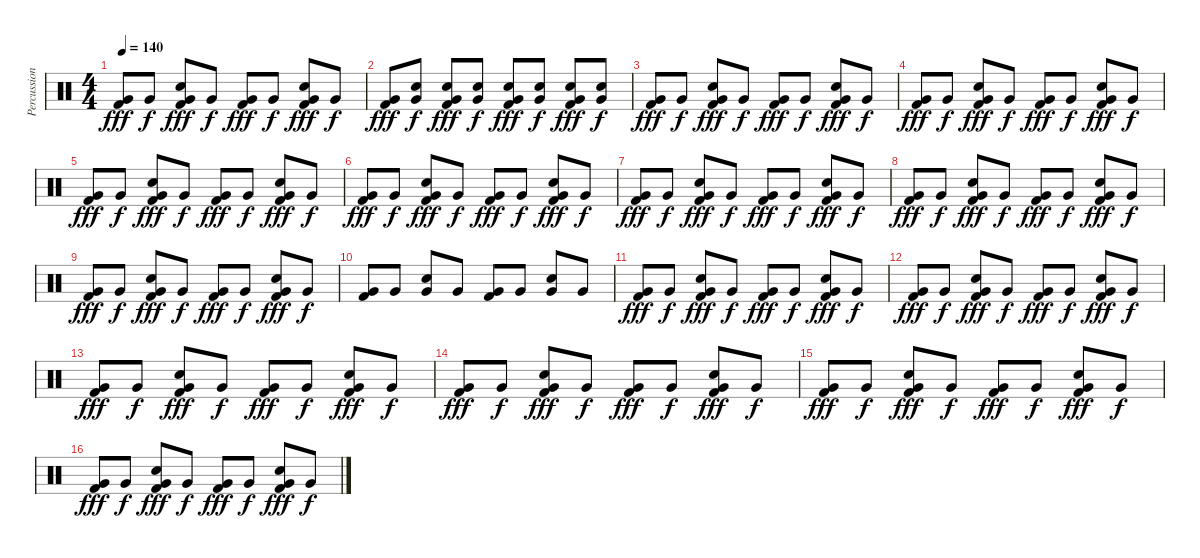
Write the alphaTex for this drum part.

\track ("Percussion" "Percussion") {instrument percussion}
\staff {score}
\articulation defaults
\ts (4 4)
\tempo 140
\clef neutral
\ks c
("Very Low Tom (hit)" "Kick (hit) 2").8{dy fff} "Very Low Tom (hit)".8{dy f} ("Very Low Tom (hit)" "Snare (hit) 2" "Kick (hit) 2").8{dy fff} "Very Low Tom (hit)".8{dy f} ("Very Low Tom (hit)" "Kick (hit) 2").8{dy fff} "Very Low Tom (hit)".8{dy f} ("Very Low Tom (hit)" "Snare (hit) 2" "Kick (hit) 2").8{dy fff} "Very Low Tom (hit)".8{dy f} |
("Very Low Tom (hit)" "Kick (hit) 2").8{dy fff} ("Very Low Tom (hit)" "Snare (hit) 2").8{dy f} ("Very Low Tom (hit)" "Snare (hit) 2" "Kick (hit) 2").8{dy fff} ("Very Low Tom (hit)" "Snare (hit) 2").8{dy f} ("Very Low Tom (hit)" "Snare (hit) 2" "Kick (hit) 2").8{dy fff} ("Very Low Tom (hit)" "Snare (hit) 2").8{dy f} ("Very Low Tom (hit)" "Snare (hit) 2" "Kick (hit) 2").8{dy fff} ("Very Low Tom (hit)" "Snare (hit) 2").8{dy f} |
("Very Low Tom (hit)" "Kick (hit) 2").8{dy fff} "Very Low Tom (hit)".8{dy f} ("Very Low Tom (hit)" "Snare (hit) 2" "Kick (hit) 2").8{dy fff} "Very Low Tom (hit)".8{dy f} ("Very Low Tom (hit)" "Kick (hit) 2").8{dy fff} "Very Low Tom (hit)".8{dy f} ("Very Low Tom (hit)" "Snare (hit) 2" "Kick (hit) 2").8{dy fff} "Very Low Tom (hit)".8{dy f} |
("Very Low Tom (hit)" "Kick (hit) 2").8{dy fff} "Very Low Tom (hit)".8{dy f} ("Very Low Tom (hit)" "Snare (hit) 2" "Kick (hit) 2").8{dy fff} "Very Low Tom (hit)".8{dy f} ("Very Low Tom (hit)" "Kick (hit) 2").8{dy fff} "Very Low Tom (hit)".8{dy f} ("Very Low Tom (hit)" "Snare (hit) 2" "Kick (hit) 2").8{dy fff} "Very Low Tom (hit)".8{dy f} |
("Very Low Tom (hit)" "Kick (hit) 2").8{dy fff} "Very Low Tom (hit)".8{dy f} ("Very Low Tom (hit)" "Snare (hit) 2" "Kick (hit) 2").8{dy fff} "Very Low Tom (hit)".8{dy f} ("Very Low Tom (hit)" "Kick (hit) 2").8{dy fff} "Very Low Tom (hit)".8{dy f} ("Very Low Tom (hit)" "Snare (hit) 2" "Kick (hit) 2").8{dy fff} "Very Low Tom (hit)".8{dy f} |
("Very Low Tom (hit)" "Kick (hit) 2").8{dy fff} "Very Low Tom (hit)".8{dy f} ("Very Low Tom (hit)" "Snare (hit) 2" "Kick (hit) 2").8{dy fff} "Very Low Tom (hit)".8{dy f} ("Very Low Tom (hit)" "Kick (hit) 2").8{dy fff} "Very Low Tom (hit)".8{dy f} ("Very Low Tom (hit)" "Snare (hit) 2" "Kick (hit) 2").8{dy fff} "Very Low Tom (hit)".8{dy f} |
("Very Low Tom (hit)" "Kick (hit) 2").8{dy fff} "Very Low Tom (hit)".8{dy f} ("Very Low Tom (hit)" "Snare (hit) 2" "Kick (hit) 2").8{dy fff} "Very Low Tom (hit)".8{dy f} ("Very Low Tom (hit)" "Kick (hit) 2").8{dy fff} "Very Low Tom (hit)".8{dy f} ("Very Low Tom (hit)" "Snare (hit) 2" "Kick (hit) 2").8{dy fff} "Very Low Tom (hit)".8{dy f} |
("Very Low Tom (hit)" "Kick (hit) 2").8{dy fff} "Very Low Tom (hit)".8{dy f} ("Very Low Tom (hit)" "Snare (hit) 2" "Kick (hit) 2").8{dy fff} "Very Low Tom (hit)".8{dy f} ("Very Low Tom (hit)" "Kick (hit) 2").8{dy fff} "Very Low Tom (hit)".8{dy f} ("Very Low Tom (hit)" "Snare (hit) 2" "Kick (hit) 2").8{dy fff} "Very Low Tom (hit)".8{dy f} |
("Very Low Tom (hit)" "Kick (hit) 2").8{dy fff} "Very Low Tom (hit)".8{dy f} ("Very Low Tom (hit)" "Snare (hit) 2" "Kick (hit) 2").8{dy fff} "Very Low Tom (hit)".8{dy f} ("Very Low Tom (hit)" "Kick (hit) 2").8{dy fff} "Very Low Tom (hit)".8{dy f} ("Very Low Tom (hit)" "Snare (hit) 2" "Kick (hit) 2").8{dy fff} "Very Low Tom (hit)".8{dy f} |
("Very Low Tom (hit)" "Kick (hit) 2").8 "Very Low Tom (hit)".8 ("Very Low Tom (hit)" "Snare (hit) 2").8 "Very Low Tom (hit)".8 ("Very Low Tom (hit)" "Kick (hit) 2").8 "Very Low Tom (hit)".8 ("Very Low Tom (hit)" "Snare (hit) 2").8 "Very Low Tom (hit)".8 |
("Very Low Tom (hit)" "Kick (hit) 2").8{dy fff} "Very Low Tom (hit)".8{dy f} ("Very Low Tom (hit)" "Snare (hit) 2" "Kick (hit) 2").8{dy fff} "Very Low Tom (hit)".8{dy f} ("Very Low Tom (hit)" "Kick (hit) 2").8{dy fff} "Very Low Tom (hit)".8{dy f} ("Very Low Tom (hit)" "Snare (hit) 2" "Kick (hit) 2").8{dy fff} "Very Low Tom (hit)".8{dy f} |
("Very Low Tom (hit)" "Kick (hit) 2").8{dy fff} "Very Low Tom (hit)".8{dy f} ("Very Low Tom (hit)" "Snare (hit) 2" "Kick (hit) 2").8{dy fff} "Very Low Tom (hit)".8{dy f} ("Very Low Tom (hit)" "Kick (hit) 2").8{dy fff} "Very Low Tom (hit)".8{dy f} ("Very Low Tom (hit)" "Snare (hit) 2" "Kick (hit) 2").8{dy fff} "Very Low Tom (hit)".8{dy f} |
("Very Low Tom (hit)" "Kick (hit) 2").8{dy fff} "Very Low Tom (hit)".8{dy f} ("Very Low Tom (hit)" "Snare (hit) 2" "Kick (hit) 2").8{dy fff} "Very Low Tom (hit)".8{dy f} ("Very Low Tom (hit)" "Kick (hit) 2").8{dy fff} "Very Low Tom (hit)".8{dy f} ("Very Low Tom (hit)" "Snare (hit) 2" "Kick (hit) 2").8{dy fff} "Very Low Tom (hit)".8{dy f} |
("Very Low Tom (hit)" "Kick (hit) 2").8{dy fff} "Very Low Tom (hit)".8{dy f} ("Very Low Tom (hit)" "Snare (hit) 2" "Kick (hit) 2").8{dy fff} "Very Low Tom (hit)".8{dy f} ("Very Low Tom (hit)" "Kick (hit) 2").8{dy fff} "Very Low Tom (hit)".8{dy f} ("Very Low Tom (hit)" "Snare (hit) 2" "Kick (hit) 2").8{dy fff} "Very Low Tom (hit)".8{dy f} |
("Very Low Tom (hit)" "Kick (hit) 2").8{dy fff} "Very Low Tom (hit)".8{dy f} ("Very Low Tom (hit)" "Snare (hit) 2" "Kick (hit) 2").8{dy fff} "Very Low Tom (hit)".8{dy f} ("Very Low Tom (hit)" "Kick (hit) 2").8{dy fff} "Very Low Tom (hit)".8{dy f} ("Very Low Tom (hit)" "Snare (hit) 2" "Kick (hit) 2").8{dy fff} "Very Low Tom (hit)".8{dy f} |
("Very Low Tom (hit)" "Kick (hit) 2").8{dy fff} "Very Low Tom (hit)".8{dy f} ("Very Low Tom (hit)" "Snare (hit) 2" "Kick (hit) 2").8{dy fff} "Very Low Tom (hit)".8{dy f} ("Very Low Tom (hit)" "Kick (hit) 2").8{dy fff} "Very Low Tom (hit)".8{dy f} ("Very Low Tom (hit)" "Snare (hit) 2" "Kick (hit) 2").8{dy fff} "Very Low Tom (hit)".8{dy f}
